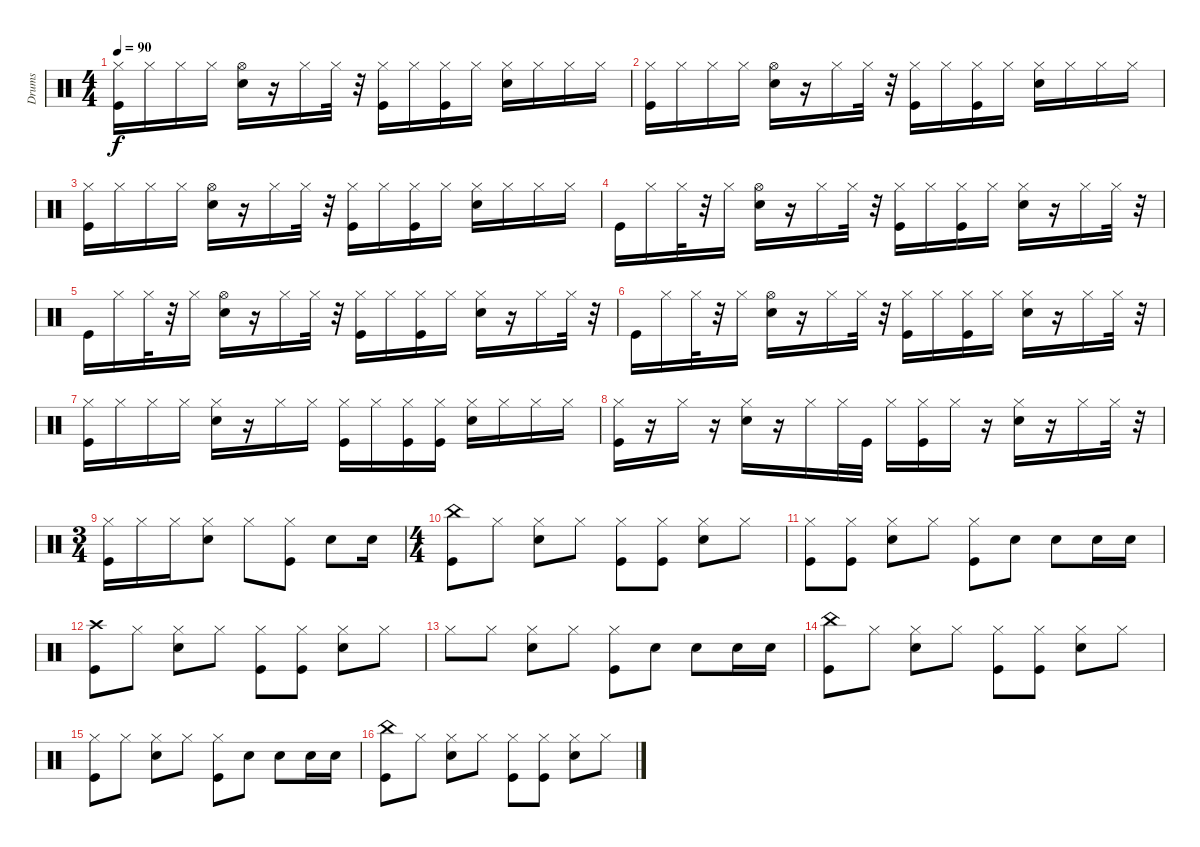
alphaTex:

\track ("Drums" "Drums") {instrument percussion}
\staff {score}
\articulation defaults
\ts (4 4)
\tempo 90
\clef neutral
\ks c
("Kick (hit)" "Hi-Hat (closed)").16{dy f} "Hi-Hat (closed)".16 "Hi-Hat (closed)".16 "Hi-Hat (closed)".16 ("Hi-Hat (open)" "Snare (hit) 2").16 r.16 "Hi-Hat (closed)".16 "Hi-Hat (closed)".32 r.32 ("Hi-Hat (closed)" "Kick (hit)").16 "Hi-Hat (closed)".16 ("Hi-Hat (closed)" "Kick (hit)").16 "Hi-Hat (closed)".16 ("Hi-Hat (closed)" "Snare (hit) 2").16 "Hi-Hat (closed)".16 "Hi-Hat (closed)".16 "Hi-Hat (closed)".16 |
("Kick (hit)" "Hi-Hat (closed)").16 "Hi-Hat (closed)".16 "Hi-Hat (closed)".16 "Hi-Hat (closed)".16 ("Hi-Hat (open)" "Snare (hit) 2").16 r.16 "Hi-Hat (closed)".16 "Hi-Hat (closed)".32 r.32 ("Hi-Hat (closed)" "Kick (hit)").16 "Hi-Hat (closed)".16 ("Hi-Hat (closed)" "Kick (hit)").16 "Hi-Hat (closed)".16 ("Hi-Hat (closed)" "Snare (hit) 2").16 "Hi-Hat (closed)".16 "Hi-Hat (closed)".16 "Hi-Hat (closed)".16 |
("Kick (hit)" "Hi-Hat (closed)").16 "Hi-Hat (closed)".16 "Hi-Hat (closed)".16 "Hi-Hat (closed)".16 ("Hi-Hat (open)" "Snare (hit) 2").16 r.16 "Hi-Hat (closed)".16 "Hi-Hat (closed)".32 r.32 ("Hi-Hat (closed)" "Kick (hit)").16 "Hi-Hat (closed)".16 ("Hi-Hat (closed)" "Kick (hit)").16 "Hi-Hat (closed)".16 ("Hi-Hat (closed)" "Snare (hit) 2").16 "Hi-Hat (closed)".16 "Hi-Hat (closed)".16 "Hi-Hat (closed)".16 |
"Kick (hit)".16 "Hi-Hat (closed)".16 "Hi-Hat (closed)".32 r.32 "Hi-Hat (closed)".16 ("Hi-Hat (open)" "Snare (hit) 2").16 r.16 "Hi-Hat (closed)".16 "Hi-Hat (closed)".32 r.32 ("Hi-Hat (closed)" "Kick (hit)").16 "Hi-Hat (closed)".16 ("Hi-Hat (closed)" "Kick (hit)").16 "Hi-Hat (closed)".16 ("Hi-Hat (closed)" "Snare (hit) 2").16 r.16 "Hi-Hat (closed)".16 "Hi-Hat (closed)".32 r.32 |
"Kick (hit)".16 "Hi-Hat (closed)".16 "Hi-Hat (closed)".32 r.32 "Hi-Hat (closed)".16 ("Hi-Hat (open)" "Snare (hit) 2").16 r.16 "Hi-Hat (closed)".16 "Hi-Hat (closed)".32 r.32 ("Hi-Hat (closed)" "Kick (hit)").16 "Hi-Hat (closed)".16 ("Hi-Hat (closed)" "Kick (hit)").16 "Hi-Hat (closed)".16 ("Hi-Hat (closed)" "Snare (hit) 2").16 r.16 "Hi-Hat (closed)".16 "Hi-Hat (closed)".32 r.32 |
"Kick (hit)".16 "Hi-Hat (closed)".16 "Hi-Hat (closed)".32 r.32 "Hi-Hat (closed)".16 ("Hi-Hat (open)" "Snare (hit) 2").16 r.16 "Hi-Hat (closed)".16 "Hi-Hat (closed)".32 r.32 ("Hi-Hat (closed)" "Kick (hit)").16 "Hi-Hat (closed)".16 ("Hi-Hat (closed)" "Kick (hit)").16 "Hi-Hat (closed)".16 ("Hi-Hat (closed)" "Snare (hit) 2").16 r.16 "Hi-Hat (closed)".16 "Hi-Hat (closed)".32 r.32 |
("Hi-Hat (closed)" "Kick (hit)").16 "Hi-Hat (closed)".16 "Hi-Hat (closed)".16 "Hi-Hat (closed)".16 ("Hi-Hat (closed)" "Snare (hit) 2").16 r.16 "Hi-Hat (closed)".16 "Hi-Hat (closed)".16 ("Hi-Hat (closed)" "Kick (hit)").16 "Hi-Hat (closed)".16 ("Hi-Hat (closed)" "Kick (hit)").16 ("Hi-Hat (closed)" "Kick (hit)").16 ("Hi-Hat (closed)" "Snare (hit) 2").16 "Hi-Hat (closed)".16 "Hi-Hat (closed)".16 "Hi-Hat (closed)".16 |
("Kick (hit)" "Hi-Hat (closed)").16 r.16 "Hi-Hat (closed)".16 r.16 ("Hi-Hat (closed)" "Snare (hit) 2").16 r.16 "Hi-Hat (closed)".16 "Hi-Hat (closed)".32 "Kick (hit)".32 "Hi-Hat (closed)".16 ("Hi-Hat (closed)" "Kick (hit)").16 "Hi-Hat (closed)".16 r.16 ("Hi-Hat (closed)" "Snare (hit) 2").16 r.16 "Hi-Hat (closed)".16 "Hi-Hat (closed)".32 r.32 |
\ts (3 4)
("Hi-Hat (closed)" "Kick (hit)").16 "Hi-Hat (closed)".16 "Hi-Hat (closed)".16 ("Hi-Hat (closed)" "Snare (hit) 2").8 "Hi-Hat (closed)".8 ("Hi-Hat (closed)" "Kick (hit)").8 "Snare (hit) 2".8 "Snare (hit) 2".16 |
\ts (4 4)
("Kick (hit)" "China (hit)").8 "Hi-Hat (closed)".8 ("Snare (hit) 2" "Hi-Hat (closed)").8 "Hi-Hat (closed)".8 ("Kick (hit)" "Hi-Hat (closed)").8 ("Kick (hit)" "Hi-Hat (closed)").8 ("Snare (hit) 2" "Hi-Hat (closed)").8 "Hi-Hat (closed)".8 |
("Hi-Hat (closed)" "Kick (hit)").8 ("Kick (hit)" "Hi-Hat (closed)").8 ("Snare (hit) 2" "Hi-Hat (closed)").8 "Hi-Hat (closed)".8 ("Kick (hit)" "Hi-Hat (closed)").8 "Snare (hit) 2".8 "Snare (hit) 2".8 "Snare (hit) 2".16 "Snare (hit) 2".16 |
("Kick (hit)" "Crash high (hit)").8 "Hi-Hat (closed)".8 ("Snare (hit) 2" "Hi-Hat (closed)").8 "Hi-Hat (closed)".8 ("Kick (hit)" "Hi-Hat (closed)").8 ("Kick (hit)" "Hi-Hat (closed)").8 ("Snare (hit) 2" "Hi-Hat (closed)").8 "Hi-Hat (closed)".8 |
"Hi-Hat (closed)".8 "Hi-Hat (closed)".8 ("Snare (hit) 2" "Hi-Hat (closed)").8 "Hi-Hat (closed)".8 ("Kick (hit)" "Hi-Hat (closed)").8 "Snare (hit) 2".8 "Snare (hit) 2".8 "Snare (hit) 2".16 "Snare (hit) 2".16 |
("Kick (hit)" "China (hit)").8 "Hi-Hat (closed)".8 ("Snare (hit) 2" "Hi-Hat (closed)").8 "Hi-Hat (closed)".8 ("Kick (hit)" "Hi-Hat (closed)").8 ("Kick (hit)" "Hi-Hat (closed)").8 ("Snare (hit) 2" "Hi-Hat (closed)").8 "Hi-Hat (closed)".8 |
("Hi-Hat (closed)" "Kick (hit)").8 "Hi-Hat (closed)".8 ("Snare (hit) 2" "Hi-Hat (closed)").8 "Hi-Hat (closed)".8 ("Kick (hit)" "Hi-Hat (closed)").8 "Snare (hit) 2".8 "Snare (hit) 2".8 "Snare (hit) 2".16 "Snare (hit) 2".16 |
("Kick (hit)" "China (hit)").8 "Hi-Hat (closed)".8 ("Snare (hit) 2" "Hi-Hat (closed)").8 "Hi-Hat (closed)".8 ("Kick (hit)" "Hi-Hat (closed)").8 ("Kick (hit)" "Hi-Hat (closed)").8 ("Snare (hit) 2" "Hi-Hat (closed)").8 "Hi-Hat (closed)".8
